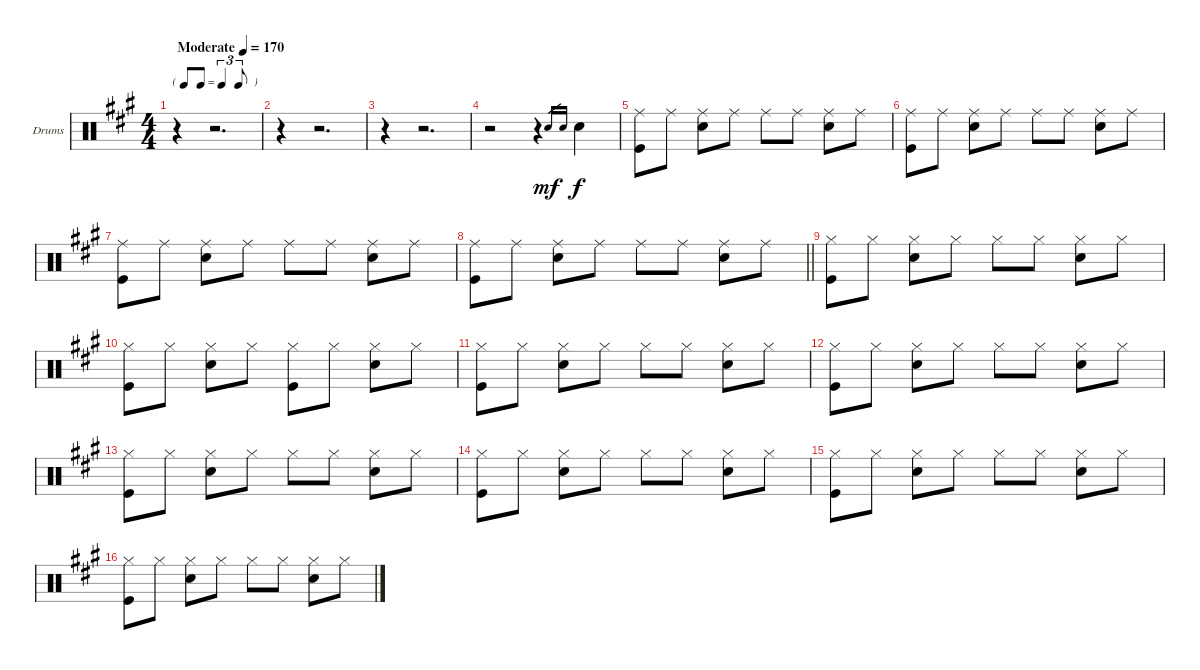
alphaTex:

\bracketExtendMode groupsimilarinstruments
\firstSystemTrackNameOrientation horizontal
\otherSystemsTrackNameOrientation horizontal
\track ("Ringo" "Drums") {instrument percussion}
\staff {score}
\articulation defaults
\ts (4 4)
\beaming (8 2 2 2 2)
\tf triplet8th
\tempo (170 "Moderate")
\clef neutral
\ks a
r.4{dy mf} r.2{d} |
r.4 r.2{d} |
r.4 r.2{d} |
r.2 r.4 "Snare (hit) 2".16{gr} "Snare (hit) 2".16{gr} "Snare (hit) 2".4{dy f} |
("Ride (middle)" "Kick (hit)").8 "Ride (middle)".8 ("Ride (middle)" "Snare (hit) 2").8 "Ride (middle)".8 "Ride (middle)".8 "Ride (middle)".8 ("Ride (middle)" "Snare (hit) 2").8 "Ride (middle)".8 |
("Ride (middle)" "Kick (hit)").8 "Ride (middle)".8 ("Ride (middle)" "Snare (hit) 2").8 "Ride (middle)".8 "Ride (middle)".8 "Ride (middle)".8 ("Ride (middle)" "Snare (hit) 2").8 "Ride (middle)".8 |
("Ride (middle)" "Kick (hit)").8 "Ride (middle)".8 ("Ride (middle)" "Snare (hit) 2").8 "Ride (middle)".8 "Ride (middle)".8 "Ride (middle)".8 ("Ride (middle)" "Snare (hit) 2").8 "Ride (middle)".8 |
\barLineRight lightlight
("Ride (middle)" "Kick (hit)").8 "Ride (middle)".8 ("Ride (middle)" "Snare (hit) 2").8 "Ride (middle)".8 "Ride (middle)".8 "Ride (middle)".8 ("Ride (middle)" "Snare (hit) 2").8 "Ride (middle)".8 |
("Hi-Hat (closed)" "Kick (hit)").8 "Hi-Hat (closed)".8 ("Hi-Hat (closed)" "Snare (hit) 2").8 "Hi-Hat (closed)".8 "Hi-Hat (closed)".8 "Hi-Hat (closed)".8 ("Hi-Hat (closed)" "Snare (hit) 2").8 "Hi-Hat (closed)".8 |
("Hi-Hat (closed)" "Kick (hit)").8 "Hi-Hat (closed)".8 ("Hi-Hat (closed)" "Snare (hit) 2").8 "Hi-Hat (closed)".8 ("Hi-Hat (closed)" "Kick (hit)").8 "Hi-Hat (closed)".8 ("Hi-Hat (closed)" "Snare (hit) 2").8 "Hi-Hat (closed)".8 |
("Hi-Hat (closed)" "Kick (hit)").8 "Hi-Hat (closed)".8 ("Hi-Hat (closed)" "Snare (hit) 2").8 "Hi-Hat (closed)".8 "Hi-Hat (closed)".8 "Hi-Hat (closed)".8 ("Hi-Hat (closed)" "Snare (hit) 2").8 "Hi-Hat (closed)".8 |
("Hi-Hat (closed)" "Kick (hit)").8 "Hi-Hat (closed)".8 ("Hi-Hat (closed)" "Snare (hit) 2").8 "Hi-Hat (closed)".8 "Hi-Hat (closed)".8 "Hi-Hat (closed)".8 ("Hi-Hat (closed)" "Snare (hit) 2").8 "Hi-Hat (closed)".8 |
("Hi-Hat (closed)" "Kick (hit)").8 "Hi-Hat (closed)".8 ("Hi-Hat (closed)" "Snare (hit) 2").8 "Hi-Hat (closed)".8 "Hi-Hat (closed)".8 "Hi-Hat (closed)".8 ("Hi-Hat (closed)" "Snare (hit) 2").8 "Hi-Hat (closed)".8 |
("Hi-Hat (closed)" "Kick (hit)").8 "Hi-Hat (closed)".8 ("Hi-Hat (closed)" "Snare (hit) 2").8 "Hi-Hat (closed)".8 "Hi-Hat (closed)".8 "Hi-Hat (closed)".8 ("Hi-Hat (closed)" "Snare (hit) 2").8 "Hi-Hat (closed)".8 |
("Hi-Hat (closed)" "Kick (hit)").8 "Hi-Hat (closed)".8 ("Hi-Hat (closed)" "Snare (hit) 2").8 "Hi-Hat (closed)".8 "Hi-Hat (closed)".8 "Hi-Hat (closed)".8 ("Hi-Hat (closed)" "Snare (hit) 2").8 "Hi-Hat (closed)".8 |
("Hi-Hat (closed)" "Kick (hit)").8 "Hi-Hat (closed)".8 ("Hi-Hat (closed)" "Snare (hit) 2").8 "Hi-Hat (closed)".8 "Hi-Hat (closed)".8 "Hi-Hat (closed)".8 ("Hi-Hat (closed)" "Snare (hit) 2").8 "Hi-Hat (closed)".8
